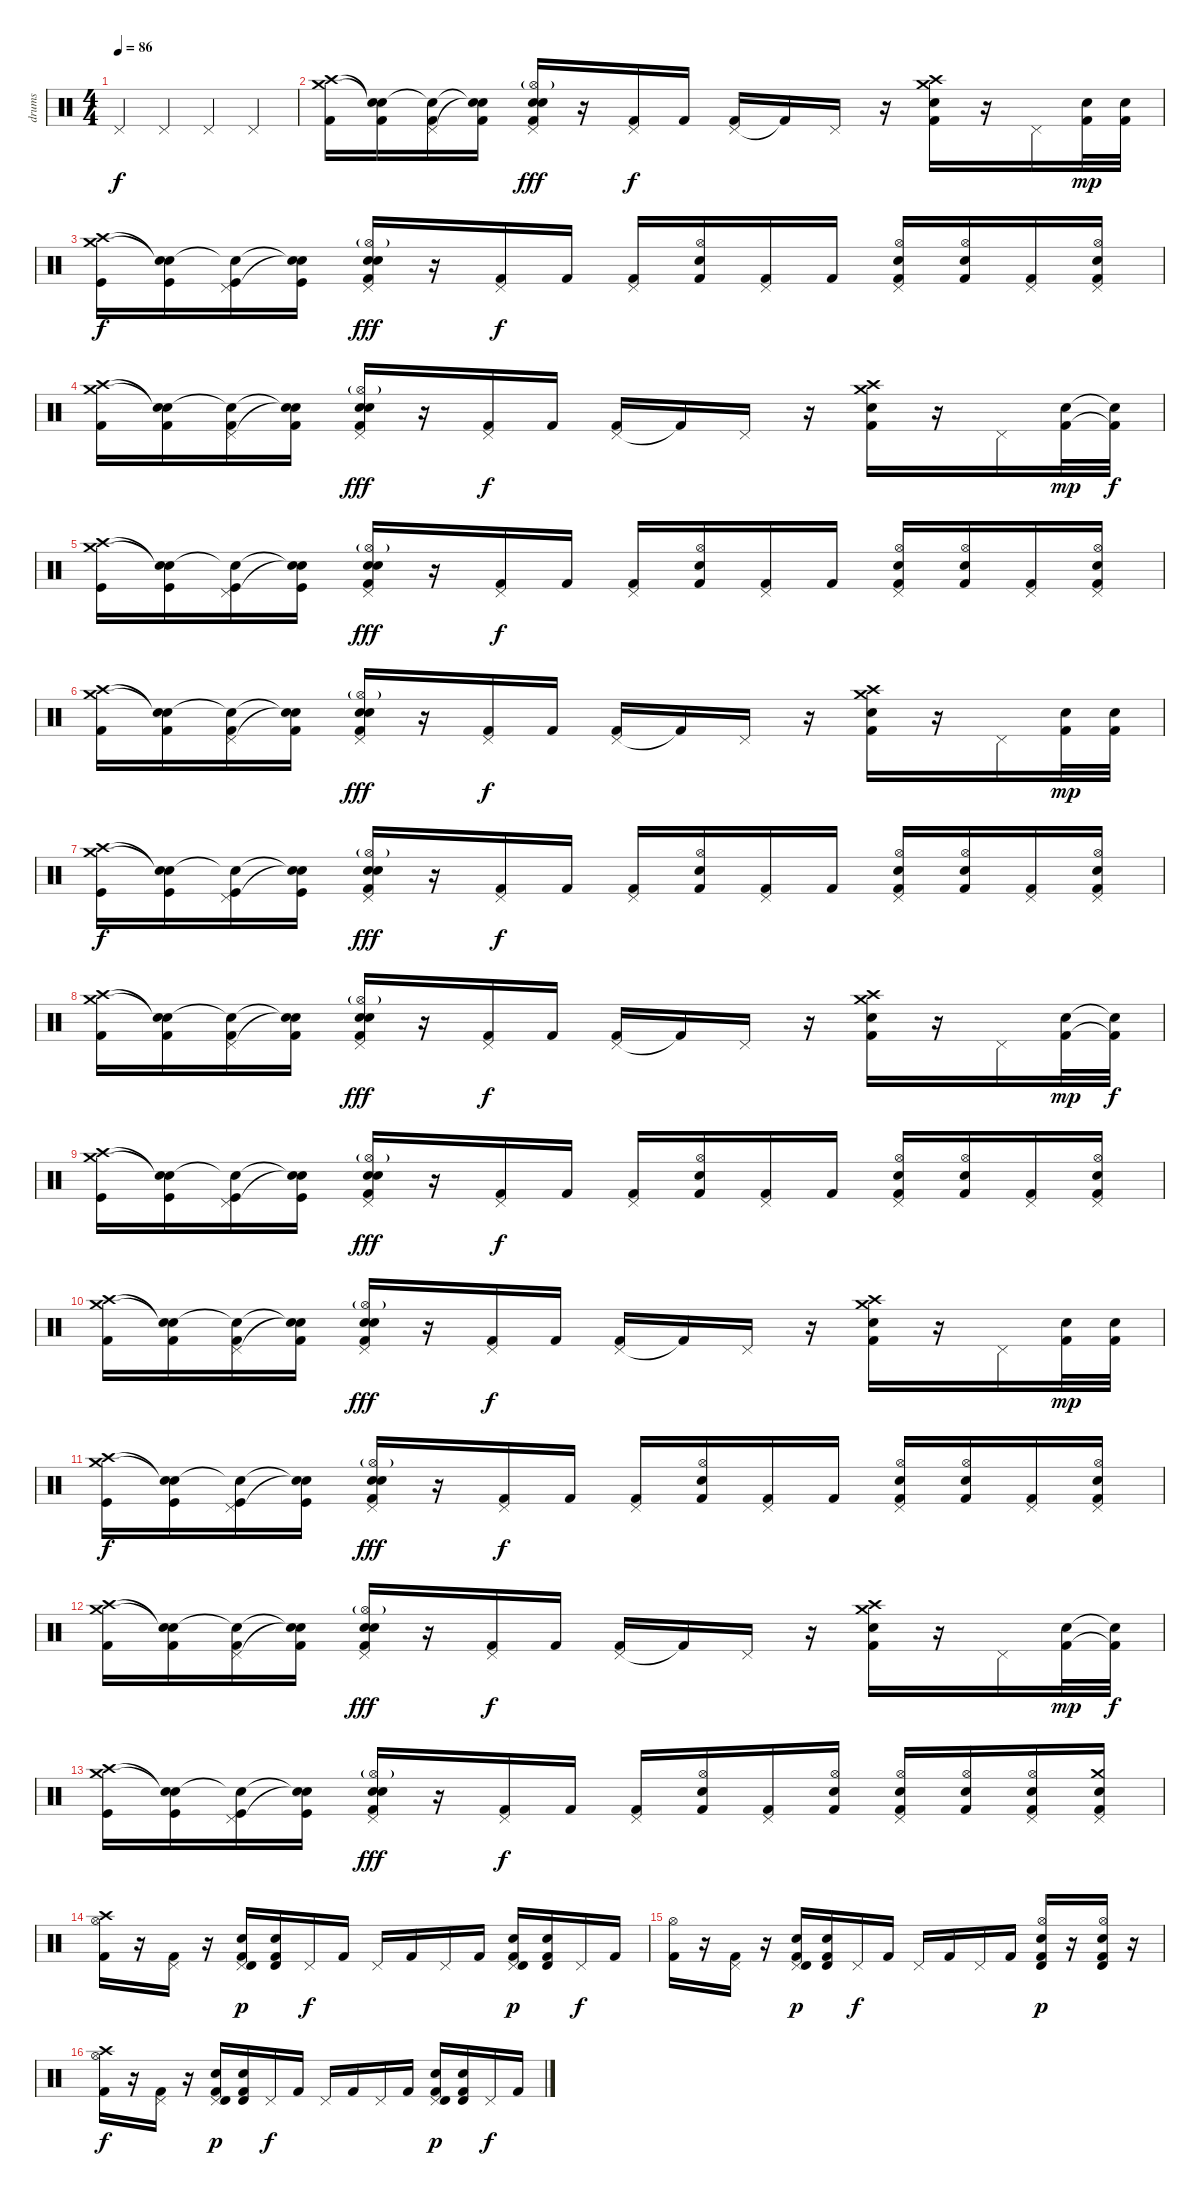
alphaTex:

\track ("drums" "drums") {instrument percussion}
\staff {score}
\articulation defaults
\ts (4 4)
\tempo 86
\clef neutral
\ks c "Pedal Hi-Hat (hit)".4{dy f} "Pedal Hi-Hat (hit)".4 "Pedal Hi-Hat (hit)".4 "Pedal Hi-Hat (hit)".4
|
("Crash high (hit)" "Crash medium (hit)" "Kick (hit) 2").16 ("Snare (hit)"{t} "Snare (hit)"{t} "Kick (hit) 2").16 ("Pedal Hi-Hat (hit)" "Snare (hit)"{t} "Kick (hit) 2").16 ("Snare (hit)"{t} "Snare (hit)"{t} "Kick (hit) 2").16 ("Pedal Hi-Hat (hit)" "Hi-Hat (open)"{g} "Electric Snare (hit)" "Electric Snare (hit)" "Kick (hit) 2").16{dy fff} r.16 ("Pedal Hi-Hat (hit)" "Kick (hit) 2").16{dy f} "Kick (hit) 2".16 ("Pedal Hi-Hat (hit)" "Kick (hit) 2").16 "Kick (hit) 2"{t}.16 "Pedal Hi-Hat (hit)".16 r.16 ("Crash high (hit)" "Crash medium (hit)" "Kick (hit) 2" "Electric Snare (hit)").16 r.16 "Pedal Hi-Hat (hit)".16 ("Kick (hit) 2" "Electric Snare (hit)").32{dy mp} ("Kick (hit) 2" "Electric Snare (hit)").32 |
("Crash high (hit)" "Crash medium (hit)" "Kick (hit)").16{dy f} ("Snare (hit)"{t} "Snare (hit)"{t} "Kick (hit)").16 ("Pedal Hi-Hat (hit)" "Snare (hit)"{t} "Kick (hit)").16 ("Snare (hit)"{t} "Snare (hit)"{t} "Kick (hit)").16 ("Pedal Hi-Hat (hit)" "Hi-Hat (open)"{g} "Electric Snare (hit)" "Electric Snare (hit)" "Kick (hit) 2").16{dy fff} r.16 ("Pedal Hi-Hat (hit)" "Kick (hit) 2").16{dy f} "Kick (hit) 2".16 ("Pedal Hi-Hat (hit)" "Kick (hit) 2").16 ("Hi-Hat (open)" "Electric Snare (hit)" "Kick (hit) 2").16 ("Pedal Hi-Hat (hit)" "Kick (hit) 2").16 "Kick (hit) 2".16 ("Pedal Hi-Hat (hit)" "Hi-Hat (open)" "Electric Snare (hit)" "Kick (hit) 2").16 ("Hi-Hat (open)" "Electric Snare (hit)" "Kick (hit) 2").16 ("Pedal Hi-Hat (hit)" "Kick (hit) 2").16 ("Pedal Hi-Hat (hit)" "Hi-Hat (open)" "Electric Snare (hit)" "Kick (hit) 2").16 |
("Crash high (hit)" "Crash medium (hit)" "Kick (hit) 2").16 ("Snare (hit)"{t} "Snare (hit)"{t} "Kick (hit) 2").16 ("Pedal Hi-Hat (hit)" "Snare (hit)"{t} "Kick (hit) 2").16 ("Snare (hit)"{t} "Snare (hit)"{t} "Kick (hit) 2").16 ("Pedal Hi-Hat (hit)" "Hi-Hat (open)"{g} "Electric Snare (hit)" "Electric Snare (hit)" "Kick (hit) 2").16{dy fff} r.16 ("Pedal Hi-Hat (hit)" "Kick (hit) 2").16{dy f} "Kick (hit) 2".16 ("Pedal Hi-Hat (hit)" "Kick (hit) 2").16 "Kick (hit) 2"{t}.16 "Pedal Hi-Hat (hit)".16 r.16 ("Crash high (hit)" "Crash medium (hit)" "Kick (hit) 2" "Electric Snare (hit)").16 r.16 "Pedal Hi-Hat (hit)".16 ("Kick (hit) 2" "Electric Snare (hit)").32{dy mp} ("Kick (hit) 2"{t} "Electric Snare (hit)"{t}).32{dy f} |
("Crash high (hit)" "Crash medium (hit)" "Kick (hit)").16 ("Snare (hit)"{t} "Snare (hit)"{t} "Kick (hit)").16 ("Pedal Hi-Hat (hit)" "Snare (hit)"{t} "Kick (hit)").16 ("Snare (hit)"{t} "Snare (hit)"{t} "Kick (hit)").16 ("Pedal Hi-Hat (hit)" "Hi-Hat (open)"{g} "Electric Snare (hit)" "Electric Snare (hit)" "Kick (hit) 2").16{dy fff} r.16 ("Pedal Hi-Hat (hit)" "Kick (hit) 2").16{dy f} "Kick (hit) 2".16 ("Pedal Hi-Hat (hit)" "Kick (hit) 2").16 ("Hi-Hat (open)" "Electric Snare (hit)" "Kick (hit) 2").16 ("Pedal Hi-Hat (hit)" "Kick (hit) 2").16 "Kick (hit) 2".16 ("Pedal Hi-Hat (hit)" "Hi-Hat (open)" "Electric Snare (hit)" "Kick (hit) 2").16 ("Hi-Hat (open)" "Electric Snare (hit)" "Kick (hit) 2").16 ("Pedal Hi-Hat (hit)" "Kick (hit) 2").16 ("Pedal Hi-Hat (hit)" "Hi-Hat (open)" "Electric Snare (hit)" "Kick (hit) 2").16 |
("Crash high (hit)" "Crash medium (hit)" "Kick (hit) 2").16 ("Snare (hit)"{t} "Snare (hit)"{t} "Kick (hit) 2").16 ("Pedal Hi-Hat (hit)" "Snare (hit)"{t} "Kick (hit) 2").16 ("Snare (hit)"{t} "Snare (hit)"{t} "Kick (hit) 2").16 ("Pedal Hi-Hat (hit)" "Hi-Hat (open)"{g} "Electric Snare (hit)" "Electric Snare (hit)" "Kick (hit) 2").16{dy fff} r.16 ("Pedal Hi-Hat (hit)" "Kick (hit) 2").16{dy f} "Kick (hit) 2".16 ("Pedal Hi-Hat (hit)" "Kick (hit) 2").16 "Kick (hit) 2"{t}.16 "Pedal Hi-Hat (hit)".16 r.16 ("Crash high (hit)" "Crash medium (hit)" "Kick (hit) 2" "Electric Snare (hit)").16 r.16 "Pedal Hi-Hat (hit)".16 ("Kick (hit) 2" "Electric Snare (hit)").32{dy mp} ("Kick (hit) 2" "Electric Snare (hit)").32 |
("Crash high (hit)" "Crash medium (hit)" "Kick (hit)").16{dy f} ("Snare (hit)"{t} "Snare (hit)"{t} "Kick (hit)").16 ("Pedal Hi-Hat (hit)" "Snare (hit)"{t} "Kick (hit)").16 ("Snare (hit)"{t} "Snare (hit)"{t} "Kick (hit)").16 ("Pedal Hi-Hat (hit)" "Hi-Hat (open)"{g} "Electric Snare (hit)" "Electric Snare (hit)" "Kick (hit) 2").16{dy fff} r.16 ("Pedal Hi-Hat (hit)" "Kick (hit) 2").16{dy f} "Kick (hit) 2".16 ("Pedal Hi-Hat (hit)" "Kick (hit) 2").16 ("Hi-Hat (open)" "Electric Snare (hit)" "Kick (hit) 2").16 ("Pedal Hi-Hat (hit)" "Kick (hit) 2").16 "Kick (hit) 2".16 ("Pedal Hi-Hat (hit)" "Hi-Hat (open)" "Electric Snare (hit)" "Kick (hit) 2").16 ("Hi-Hat (open)" "Electric Snare (hit)" "Kick (hit) 2").16 ("Pedal Hi-Hat (hit)" "Kick (hit) 2").16 ("Pedal Hi-Hat (hit)" "Hi-Hat (open)" "Electric Snare (hit)" "Kick (hit) 2").16 |
("Crash high (hit)" "Crash medium (hit)" "Kick (hit) 2").16 ("Snare (hit)"{t} "Snare (hit)"{t} "Kick (hit) 2").16 ("Pedal Hi-Hat (hit)" "Snare (hit)"{t} "Kick (hit) 2").16 ("Snare (hit)"{t} "Snare (hit)"{t} "Kick (hit) 2").16 ("Pedal Hi-Hat (hit)" "Hi-Hat (open)"{g} "Electric Snare (hit)" "Electric Snare (hit)" "Kick (hit) 2").16{dy fff} r.16 ("Pedal Hi-Hat (hit)" "Kick (hit) 2").16{dy f} "Kick (hit) 2".16 ("Pedal Hi-Hat (hit)" "Kick (hit) 2").16 "Kick (hit) 2"{t}.16 "Pedal Hi-Hat (hit)".16 r.16 ("Crash high (hit)" "Crash medium (hit)" "Kick (hit) 2" "Electric Snare (hit)").16 r.16 "Pedal Hi-Hat (hit)".16 ("Kick (hit) 2" "Electric Snare (hit)").32{dy mp} ("Kick (hit) 2"{t} "Electric Snare (hit)"{t}).32{dy f} |
("Crash high (hit)" "Crash medium (hit)" "Kick (hit)").16 ("Snare (hit)"{t} "Snare (hit)"{t} "Kick (hit)").16 ("Pedal Hi-Hat (hit)" "Snare (hit)"{t} "Kick (hit)").16 ("Snare (hit)"{t} "Snare (hit)"{t} "Kick (hit)").16 ("Pedal Hi-Hat (hit)" "Hi-Hat (open)"{g} "Electric Snare (hit)" "Electric Snare (hit)" "Kick (hit) 2").16{dy fff} r.16 ("Pedal Hi-Hat (hit)" "Kick (hit) 2").16{dy f} "Kick (hit) 2".16 ("Pedal Hi-Hat (hit)" "Kick (hit) 2").16 ("Hi-Hat (open)" "Electric Snare (hit)" "Kick (hit) 2").16 ("Pedal Hi-Hat (hit)" "Kick (hit) 2").16 "Kick (hit) 2".16 ("Pedal Hi-Hat (hit)" "Hi-Hat (open)" "Electric Snare (hit)" "Kick (hit) 2").16 ("Hi-Hat (open)" "Electric Snare (hit)" "Kick (hit) 2").16 ("Pedal Hi-Hat (hit)" "Kick (hit) 2").16 ("Pedal Hi-Hat (hit)" "Hi-Hat (open)" "Electric Snare (hit)" "Kick (hit) 2").16 |
("Crash high (hit)" "Crash medium (hit)" "Kick (hit) 2").16 ("Snare (hit)"{t} "Snare (hit)"{t} "Kick (hit) 2").16 ("Pedal Hi-Hat (hit)" "Snare (hit)"{t} "Kick (hit) 2").16 ("Snare (hit)"{t} "Snare (hit)"{t} "Kick (hit) 2").16 ("Pedal Hi-Hat (hit)" "Hi-Hat (open)"{g} "Electric Snare (hit)" "Electric Snare (hit)" "Kick (hit) 2").16{dy fff} r.16 ("Pedal Hi-Hat (hit)" "Kick (hit) 2").16{dy f} "Kick (hit) 2".16 ("Pedal Hi-Hat (hit)" "Kick (hit) 2").16 "Kick (hit) 2"{t}.16 "Pedal Hi-Hat (hit)".16 r.16 ("Crash high (hit)" "Crash medium (hit)" "Kick (hit) 2" "Electric Snare (hit)").16 r.16 "Pedal Hi-Hat (hit)".16 ("Kick (hit) 2" "Electric Snare (hit)").32{dy mp} ("Kick (hit) 2" "Electric Snare (hit)").32 |
("Crash high (hit)" "Crash medium (hit)" "Kick (hit)").16{dy f} ("Snare (hit)"{t} "Snare (hit)"{t} "Kick (hit)").16 ("Pedal Hi-Hat (hit)" "Snare (hit)"{t} "Kick (hit)").16 ("Snare (hit)"{t} "Snare (hit)"{t} "Kick (hit)").16 ("Pedal Hi-Hat (hit)" "Hi-Hat (open)"{g} "Electric Snare (hit)" "Electric Snare (hit)" "Kick (hit) 2").16{dy fff} r.16 ("Pedal Hi-Hat (hit)" "Kick (hit) 2").16{dy f} "Kick (hit) 2".16 ("Pedal Hi-Hat (hit)" "Kick (hit) 2").16 ("Hi-Hat (open)" "Electric Snare (hit)" "Kick (hit) 2").16 ("Pedal Hi-Hat (hit)" "Kick (hit) 2").16 "Kick (hit) 2".16 ("Pedal Hi-Hat (hit)" "Hi-Hat (open)" "Electric Snare (hit)" "Kick (hit) 2").16 ("Hi-Hat (open)" "Electric Snare (hit)" "Kick (hit) 2").16 ("Pedal Hi-Hat (hit)" "Kick (hit) 2").16 ("Pedal Hi-Hat (hit)" "Hi-Hat (open)" "Electric Snare (hit)" "Kick (hit) 2").16 |
("Crash high (hit)" "Crash medium (hit)" "Kick (hit) 2").16 ("Snare (hit)"{t} "Snare (hit)"{t} "Kick (hit) 2").16 ("Pedal Hi-Hat (hit)" "Snare (hit)"{t} "Kick (hit) 2").16 ("Snare (hit)"{t} "Snare (hit)"{t} "Kick (hit) 2").16 ("Pedal Hi-Hat (hit)" "Hi-Hat (open)"{g} "Electric Snare (hit)" "Electric Snare (hit)" "Kick (hit) 2").16{dy fff} r.16 ("Pedal Hi-Hat (hit)" "Kick (hit) 2").16{dy f} "Kick (hit) 2".16 ("Pedal Hi-Hat (hit)" "Kick (hit) 2").16 "Kick (hit) 2"{t}.16 "Pedal Hi-Hat (hit)".16 r.16 ("Crash high (hit)" "Crash medium (hit)" "Kick (hit) 2" "Electric Snare (hit)").16 r.16 "Pedal Hi-Hat (hit)".16 ("Kick (hit) 2" "Electric Snare (hit)").32{dy mp} ("Kick (hit) 2"{t} "Electric Snare (hit)"{t}).32{dy f} |
("Crash high (hit)" "Crash medium (hit)" "Kick (hit)").16 ("Snare (hit)"{t} "Snare (hit)"{t} "Kick (hit)").16 ("Pedal Hi-Hat (hit)" "Snare (hit)"{t} "Kick (hit)").16 ("Snare (hit)"{t} "Snare (hit)"{t} "Kick (hit)").16 ("Pedal Hi-Hat (hit)" "Hi-Hat (open)"{g} "Electric Snare (hit)" "Electric Snare (hit)" "Kick (hit) 2").16{dy fff} r.16 ("Pedal Hi-Hat (hit)" "Kick (hit) 2").16{dy f} "Kick (hit) 2".16 ("Pedal Hi-Hat (hit)" "Kick (hit) 2").16 ("Hi-Hat (open)" "Electric Snare (hit)" "Kick (hit) 2").16 ("Pedal Hi-Hat (hit)" "Kick (hit) 2").16 ("Hi-Hat (open)" "Electric Snare (hit)" "Kick (hit) 2").16 ("Pedal Hi-Hat (hit)" "Hi-Hat (open)" "Electric Snare (hit)" "Kick (hit) 2").16 ("Hi-Hat (open)" "Electric Snare (hit)" "Kick (hit) 2").16 ("Pedal Hi-Hat (hit)" "Hi-Hat (open)" "Electric Snare (hit)" "Kick (hit) 2").16 ("Pedal Hi-Hat (hit)" "Crash medium (hit)" "Electric Snare (hit)" "Kick (hit) 2").16 |
("Hi-Hat (open)" "Crash high (hit)" "Kick (hit) 2").16 r.16 ("Pedal Hi-Hat (hit)" "Kick (hit) 2").16 r.16 ("Pedal Hi-Hat (hit)" "Timbale high (hit)" "Electric Snare (hit)" "Kick (hit) 2").16{dy p} ("Timbale high (hit)" "Electric Snare (hit)" "Kick (hit) 2").16 "Pedal Hi-Hat (hit)".16{dy f} "Kick (hit) 2".16 "Pedal Hi-Hat (hit)".16 "Kick (hit) 2".16 "Pedal Hi-Hat (hit)".16 "Kick (hit) 2".16 ("Pedal Hi-Hat (hit)" "Timbale high (hit)" "Electric Snare (hit)" "Kick (hit) 2").16{dy p} ("Timbale high (hit)" "Electric Snare (hit)" "Kick (hit) 2").16 "Pedal Hi-Hat (hit)".16{dy f} "Kick (hit) 2".16 |
("Hi-Hat (open)" "Kick (hit) 2").16 r.16 ("Pedal Hi-Hat (hit)" "Kick (hit) 2").16 r.16 ("Pedal Hi-Hat (hit)" "Timbale high (hit)" "Electric Snare (hit)" "Kick (hit) 2").16{dy p} ("Timbale high (hit)" "Electric Snare (hit)" "Kick (hit) 2").16 "Pedal Hi-Hat (hit)".16{dy f} "Kick (hit) 2".16 "Pedal Hi-Hat (hit)".16 "Kick (hit) 2".16 "Pedal Hi-Hat (hit)".16 "Kick (hit) 2".16 ("Hi-Hat (open)" "Timbale high (hit)" "Electric Snare (hit)" "Kick (hit) 2").16{dy p} r.16 ("Hi-Hat (open)" "Timbale high (hit)" "Electric Snare (hit)" "Kick (hit) 2").16 r.16 |
("Hi-Hat (open)" "Crash high (hit)" "Kick (hit) 2").16{dy f} r.16 ("Pedal Hi-Hat (hit)" "Kick (hit) 2").16 r.16 ("Pedal Hi-Hat (hit)" "Timbale high (hit)" "Electric Snare (hit)" "Kick (hit) 2").16{dy p} ("Timbale high (hit)" "Electric Snare (hit)" "Kick (hit) 2").16 "Pedal Hi-Hat (hit)".16{dy f} "Kick (hit) 2".16 "Pedal Hi-Hat (hit)".16 "Kick (hit) 2".16 "Pedal Hi-Hat (hit)".16 "Kick (hit) 2".16 ("Pedal Hi-Hat (hit)" "Timbale high (hit)" "Electric Snare (hit)" "Kick (hit) 2").16{dy p} ("Timbale high (hit)" "Electric Snare (hit)" "Kick (hit) 2").16 "Pedal Hi-Hat (hit)".16{dy f} "Kick (hit) 2".16
